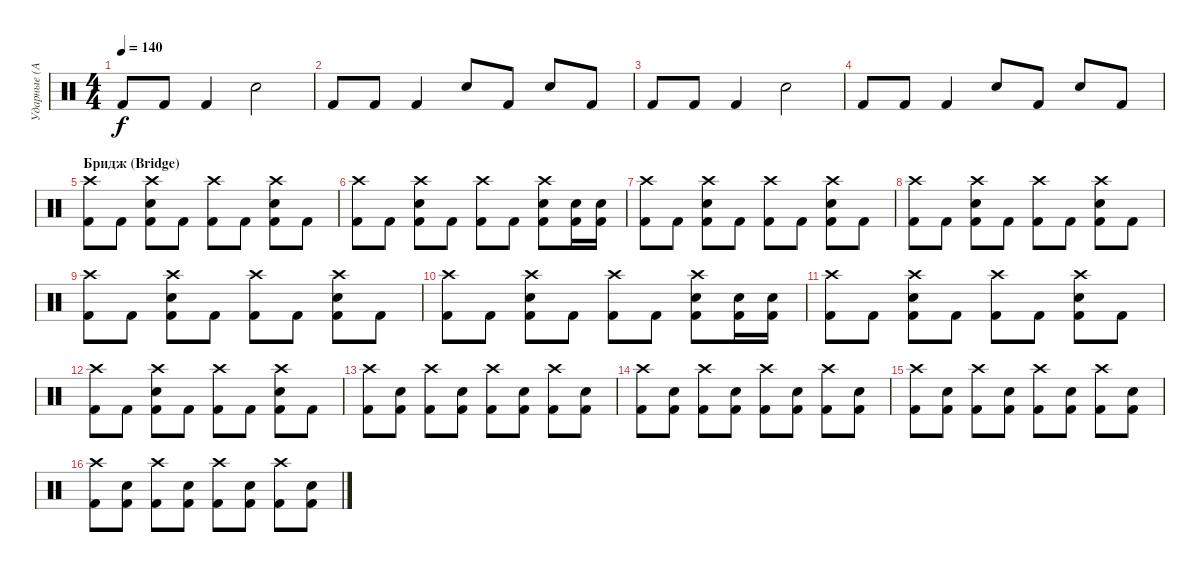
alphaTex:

\track ("Ударные (Алексей Барзилович)" "Ударные (А") {instrument percussion}
\staff {score}
\articulation defaults
\ts (4 4)
\tempo 140
\clef neutral
\ks c "Kick (hit) 2".8{dy f} "Kick (hit) 2".8 "Kick (hit) 2".4 "Electric Snare (hit)".2
|
"Kick (hit) 2".8 "Kick (hit) 2".8 "Kick (hit) 2".4 "Electric Snare (hit)".8 "Kick (hit) 2".8 "Electric Snare (hit)".8 "Kick (hit) 2".8 |
"Kick (hit) 2".8 "Kick (hit) 2".8 "Kick (hit) 2".4 "Electric Snare (hit)".2 |
"Kick (hit) 2".8 "Kick (hit) 2".8 "Kick (hit) 2".4 "Electric Snare (hit)".8 "Kick (hit) 2".8 "Electric Snare (hit)".8 "Kick (hit) 2".8 |
\section ("" "Бридж (Bridge)")
("Crash high (hit)" "Kick (hit) 2").8 "Kick (hit) 2".8 ("Crash high (hit)" "Electric Snare (hit)" "Kick (hit) 2").8 "Kick (hit) 2".8 ("Crash high (hit)" "Kick (hit) 2").8 "Kick (hit) 2".8 ("Crash high (hit)" "Electric Snare (hit)" "Kick (hit) 2").8 "Kick (hit) 2".8 |
("Crash high (hit)" "Kick (hit) 2").8 "Kick (hit) 2".8 ("Crash high (hit)" "Electric Snare (hit)" "Kick (hit) 2").8 "Kick (hit) 2".8 ("Crash high (hit)" "Kick (hit) 2").8 "Kick (hit) 2".8 ("Crash high (hit)" "Electric Snare (hit)" "Kick (hit) 2").8 ("Electric Snare (hit)" "Kick (hit) 2").16 ("Electric Snare (hit)" "Kick (hit) 2").16 |
("Crash high (hit)" "Kick (hit) 2").8 "Kick (hit) 2".8 ("Crash high (hit)" "Electric Snare (hit)" "Kick (hit) 2").8 "Kick (hit) 2".8 ("Crash high (hit)" "Kick (hit) 2").8 "Kick (hit) 2".8 ("Crash high (hit)" "Electric Snare (hit)" "Kick (hit) 2").8 "Kick (hit) 2".8 |
("Crash high (hit)" "Kick (hit) 2").8 "Kick (hit) 2".8 ("Crash high (hit)" "Electric Snare (hit)" "Kick (hit) 2").8 "Kick (hit) 2".8 ("Crash high (hit)" "Kick (hit) 2").8 "Kick (hit) 2".8 ("Crash high (hit)" "Electric Snare (hit)" "Kick (hit) 2").8 "Kick (hit) 2".8 |
("Crash high (hit)" "Kick (hit) 2").8 "Kick (hit) 2".8 ("Crash high (hit)" "Electric Snare (hit)" "Kick (hit) 2").8 "Kick (hit) 2".8 ("Crash high (hit)" "Kick (hit) 2").8 "Kick (hit) 2".8 ("Crash high (hit)" "Electric Snare (hit)" "Kick (hit) 2").8 "Kick (hit) 2".8 |
("Crash high (hit)" "Kick (hit) 2").8 "Kick (hit) 2".8 ("Crash high (hit)" "Electric Snare (hit)" "Kick (hit) 2").8 "Kick (hit) 2".8 ("Crash high (hit)" "Kick (hit) 2").8 "Kick (hit) 2".8 ("Crash high (hit)" "Electric Snare (hit)" "Kick (hit) 2").8 ("Electric Snare (hit)" "Kick (hit) 2").16 ("Electric Snare (hit)" "Kick (hit) 2").16 |
("Crash high (hit)" "Kick (hit) 2").8 "Kick (hit) 2".8 ("Crash high (hit)" "Electric Snare (hit)" "Kick (hit) 2").8 "Kick (hit) 2".8 ("Crash high (hit)" "Kick (hit) 2").8 "Kick (hit) 2".8 ("Crash high (hit)" "Electric Snare (hit)" "Kick (hit) 2").8 "Kick (hit) 2".8 |
("Crash high (hit)" "Kick (hit) 2").8 "Kick (hit) 2".8 ("Crash high (hit)" "Electric Snare (hit)" "Kick (hit) 2").8 "Kick (hit) 2".8 ("Crash high (hit)" "Kick (hit) 2").8 "Kick (hit) 2".8 ("Crash high (hit)" "Electric Snare (hit)" "Kick (hit) 2").8 "Kick (hit) 2".8 |
("Crash high (hit)" "Kick (hit) 2").8 ("Electric Snare (hit)" "Kick (hit) 2").8 ("Crash high (hit)" "Kick (hit) 2").8 ("Electric Snare (hit)" "Kick (hit) 2").8 ("Crash high (hit)" "Kick (hit) 2").8 ("Electric Snare (hit)" "Kick (hit) 2").8 ("Crash high (hit)" "Kick (hit) 2").8 ("Electric Snare (hit)" "Kick (hit) 2").8 |
("Crash high (hit)" "Kick (hit) 2").8 ("Electric Snare (hit)" "Kick (hit) 2").8 ("Crash high (hit)" "Kick (hit) 2").8 ("Electric Snare (hit)" "Kick (hit) 2").8 ("Crash high (hit)" "Kick (hit) 2").8 ("Electric Snare (hit)" "Kick (hit) 2").8 ("Crash high (hit)" "Kick (hit) 2").8 ("Electric Snare (hit)" "Kick (hit) 2").8 |
("Crash high (hit)" "Kick (hit) 2").8 ("Electric Snare (hit)" "Kick (hit) 2").8 ("Crash high (hit)" "Kick (hit) 2").8 ("Electric Snare (hit)" "Kick (hit) 2").8 ("Crash high (hit)" "Kick (hit) 2").8 ("Electric Snare (hit)" "Kick (hit) 2").8 ("Crash high (hit)" "Kick (hit) 2").8 ("Electric Snare (hit)" "Kick (hit) 2").8 |
("Crash high (hit)" "Kick (hit) 2").8 ("Electric Snare (hit)" "Kick (hit) 2").8 ("Crash high (hit)" "Kick (hit) 2").8 ("Electric Snare (hit)" "Kick (hit) 2").8 ("Crash high (hit)" "Kick (hit) 2").8 ("Electric Snare (hit)" "Kick (hit) 2").8 ("Crash high (hit)" "Kick (hit) 2").8 ("Electric Snare (hit)" "Kick (hit) 2").8
